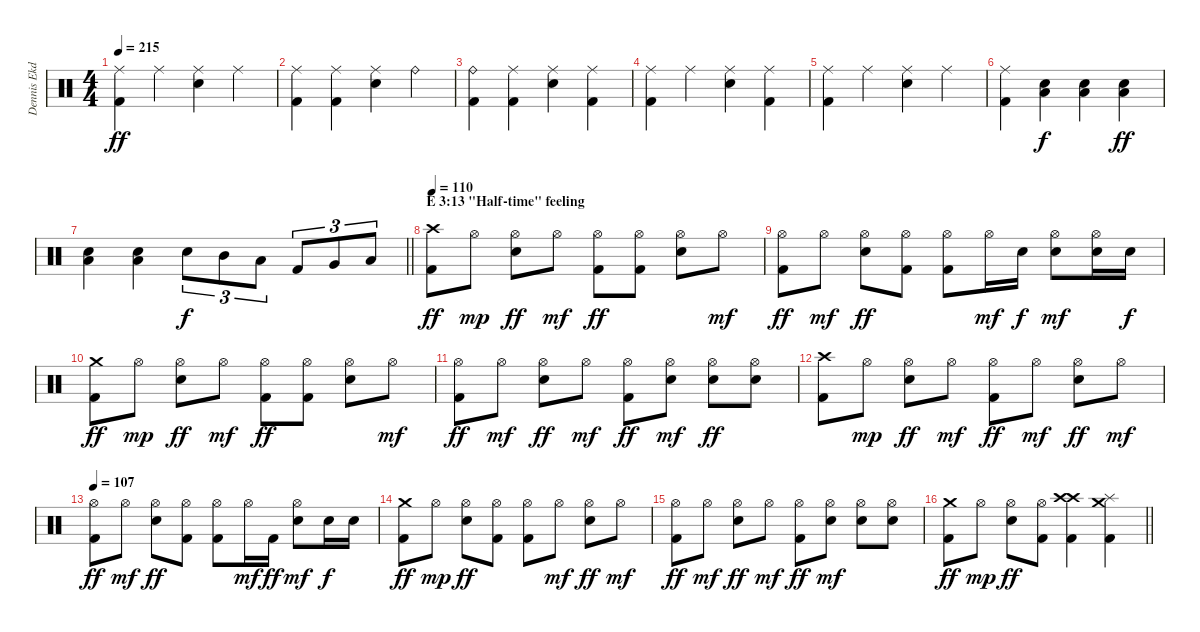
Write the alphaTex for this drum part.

\track ("Dennis Ekdahl      (Drums)" "Dennis Ekd") {instrument percussion}
\staff {score}
\articulation defaults
\ts (4 4)
\tempo 215
\clef neutral
\ks c
("Ride (middle)" "Kick (hit) 2").4{dy ff} "Ride (middle)".4 ("Ride (middle)" "Electric Snare (hit)").4 "Ride (middle)".4 |
("Ride (middle)" "Kick (hit) 2").4 ("Ride (middle)" "Kick (hit) 2").4 ("Ride (middle)" "Electric Snare (hit)").4 "Ride (bell)".4 |
("Ride (bell)" "Kick (hit) 2").4 ("Ride (middle)" "Kick (hit) 2").4 ("Ride (middle)" "Electric Snare (hit)").4 ("Ride (middle)" "Kick (hit) 2").4 |
("Ride (middle)" "Kick (hit) 2").4 "Ride (middle)".4 ("Ride (middle)" "Electric Snare (hit)").4 ("Ride (middle)" "Kick (hit) 2").4 |
("Ride (middle)" "Kick (hit) 2").4 "Ride (middle)".4 ("Ride (middle)" "Electric Snare (hit)").4 "Ride (middle)".4 |
("Ride (middle)" "Kick (hit) 2").4 ("Electric Snare (hit)" "Low Floor Tom (hit)").4{dy f} ("Electric Snare (hit)" "Low Floor Tom (hit)").4 ("Electric Snare (hit)" "Low Floor Tom (hit)").4{dy ff} |
\barLineRight lightlight
("Electric Snare (hit)" "Low Floor Tom (hit)").4 ("Electric Snare (hit)" "Low Floor Tom (hit)").4 "Electric Snare (hit)".8{tu (3 2) dy f} "Mid Tom (hit)".8{tu (3 2)} "Low Tom (hit)".8{tu (3 2)} "Kick (hit) 2".8{tu (3 2)} "Very Low Tom (hit)".8{tu (3 2)} "Low Floor Tom (hit)".8{tu (3 2)} |
\section ("" "E 3:13 \"Half-time\" feeling")
\tempo 110
("Crash high (hit)" "Kick (hit) 2").8{dy ff} "Hi-Hat (open)".8{dy mp} ("Hi-Hat (open)" "Electric Snare (hit)").8{dy ff} "Hi-Hat (open)".8{dy mf} ("Hi-Hat (open)" "Kick (hit) 2").8{dy ff} ("Hi-Hat (open)" "Kick (hit) 2").8 ("Hi-Hat (open)" "Electric Snare (hit)").8 "Hi-Hat (open)".8{dy mf} |
("Hi-Hat (open)" "Kick (hit) 2").8{dy ff} "Hi-Hat (open)".8{dy mf} ("Hi-Hat (open)" "Electric Snare (hit)").8{dy ff} ("Hi-Hat (open)" "Kick (hit) 2").8 ("Hi-Hat (open)" "Kick (hit) 2").8 "Hi-Hat (open)".16{dy mf} "Electric Snare (hit)".16{dy f} ("Hi-Hat (open)" "Electric Snare (hit)").8{dy mf} ("Hi-Hat (open)" "Electric Snare (hit)").16 "Electric Snare (hit)".16{dy f} |
("Crash medium (hit)" "Kick (hit) 2").8{dy ff} "Hi-Hat (open)".8{dy mp} ("Hi-Hat (open)" "Electric Snare (hit)").8{dy ff} "Hi-Hat (open)".8{dy mf} ("Hi-Hat (open)" "Kick (hit) 2").8{dy ff} ("Hi-Hat (open)" "Kick (hit) 2").8 ("Hi-Hat (open)" "Electric Snare (hit)").8 "Hi-Hat (open)".8{dy mf} |
("Hi-Hat (open)" "Kick (hit) 2").8{dy ff} "Hi-Hat (open)".8{dy mf} ("Hi-Hat (open)" "Electric Snare (hit)").8{dy ff} "Hi-Hat (open)".8{dy mf} ("Hi-Hat (open)" "Kick (hit) 2").8{dy ff} ("Hi-Hat (open)" "Electric Snare (hit)").8{dy mf} ("Hi-Hat (open)" "Electric Snare (hit)").8{dy ff} ("Hi-Hat (open)" "Electric Snare (hit)").8 |
("Crash high (hit)" "Kick (hit) 2").8 "Hi-Hat (open)".8{dy mp} ("Hi-Hat (open)" "Electric Snare (hit)").8{dy ff} "Hi-Hat (open)".8{dy mf} ("Hi-Hat (open)" "Kick (hit) 2").8{dy ff} "Hi-Hat (open)".8{dy mf} ("Hi-Hat (open)" "Electric Snare (hit)").8{dy ff} "Hi-Hat (open)".8{dy mf} |
\tempo 107
("Hi-Hat (open)" "Kick (hit) 2").8{dy ff} "Hi-Hat (open)".8{dy mf} ("Hi-Hat (open)" "Electric Snare (hit)").8{dy ff} ("Hi-Hat (open)" "Kick (hit) 2").8 ("Hi-Hat (open)" "Kick (hit) 2").8 "Hi-Hat (open)".16{dy mf} "Kick (hit) 2".16{dy ff} ("Hi-Hat (open)" "Electric Snare (hit)").8{dy mf} "Electric Snare (hit)".16{dy f} "Electric Snare (hit)".16 |
("Crash medium (hit)" "Kick (hit) 2").8{dy ff} "Hi-Hat (open)".8{dy mp} ("Hi-Hat (open)" "Electric Snare (hit)").8{dy ff} ("Hi-Hat (open)" "Kick (hit) 2").8 ("Hi-Hat (open)" "Kick (hit) 2").8 "Hi-Hat (open)".8{dy mf} ("Hi-Hat (open)" "Electric Snare (hit)").8{dy ff} "Hi-Hat (open)".8{dy mf} |
("Hi-Hat (open)" "Kick (hit) 2").8{dy ff} "Hi-Hat (open)".8{dy mf} ("Hi-Hat (open)" "Electric Snare (hit)").8{dy ff} "Hi-Hat (open)".8{dy mf} ("Hi-Hat (open)" "Kick (hit) 2").8{dy ff} ("Hi-Hat (open)" "Electric Snare (hit)").8{dy mf} ("Hi-Hat (open)" "Electric Snare (hit)").8 ("Hi-Hat (open)" "Electric Snare (hit)").8 |
\barLineRight lightlight
("Crash medium (hit)" "Kick (hit) 2").8{dy ff} "Hi-Hat (open)".8{dy mp} ("Hi-Hat (open)" "Electric Snare (hit)").8{dy ff} ("Hi-Hat (open)" "Kick (hit) 2").8 ("Crash high (hit)" "Crash high (hit)" "Kick (hit) 2").4 ("Crash medium (hit)" "Splash (hit)" "Kick (hit) 2").4
